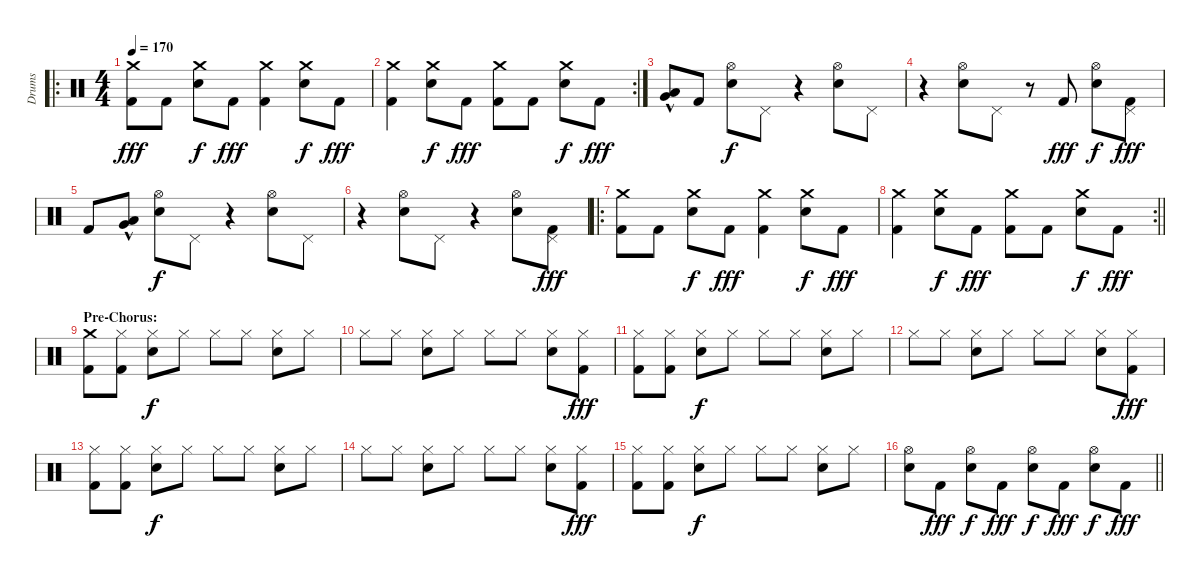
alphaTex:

\track ("Drums" "Drums") {instrument percussion}
\staff {score}
\articulation defaults
\ro
\ts (4 4)
\tempo 170
\clef neutral
\ks c
("Crash medium (hit)" "Kick (hit) 2").8{dy fff} "Kick (hit) 2".8 ("Crash medium (hit)" "Electric Snare (hit)").8{dy f} "Kick (hit) 2".8{dy fff} ("Crash medium (hit)" "Kick (hit) 2").4 ("Crash medium (hit)" "Electric Snare (hit)").8{dy f} "Kick (hit) 2".8{dy fff} |
\rc 2
("Crash medium (hit)" "Kick (hit) 2").4 ("Crash medium (hit)" "Electric Snare (hit)").8{dy f} "Kick (hit) 2".8{dy fff} ("Crash medium (hit)" "Kick (hit) 2").8 "Kick (hit) 2".8 ("Crash medium (hit)" "Electric Snare (hit)").8{dy f} "Kick (hit) 2".8{dy fff} |
("Low Tom (hit)"{hac} "Very Low Tom (hit)"{hac}).8 "Kick (hit) 2".8 ("Hi-Hat (open)" "Electric Snare (hit)").8{dy f} "Pedal Hi-Hat (hit)".8 r.4 ("Hi-Hat (open)" "Electric Snare (hit)").8 "Pedal Hi-Hat (hit)".8 |
r.4 ("Hi-Hat (open)" "Electric Snare (hit)").8 "Pedal Hi-Hat (hit)".8 r.8 "Kick (hit) 2".8{dy fff} ("Hi-Hat (open)" "Electric Snare (hit)").8{dy f} ("Pedal Hi-Hat (hit)" "Kick (hit) 2").8{dy fff} |
"Kick (hit) 2".8 ("Low Tom (hit)"{hac} "Very Low Tom (hit)"{hac}).8 ("Hi-Hat (open)" "Electric Snare (hit)").8{dy f} "Pedal Hi-Hat (hit)".8 r.4 ("Hi-Hat (open)" "Electric Snare (hit)").8 "Pedal Hi-Hat (hit)".8 |
r.4 ("Hi-Hat (open)" "Electric Snare (hit)").8 "Pedal Hi-Hat (hit)".8 r.4 ("Hi-Hat (open)" "Electric Snare (hit)").8 ("Pedal Hi-Hat (hit)" "Kick (hit) 2").8{dy fff} |
\ro
("Crash medium (hit)" "Kick (hit) 2").8 "Kick (hit) 2".8 ("Crash medium (hit)" "Electric Snare (hit)").8{dy f} "Kick (hit) 2".8{dy fff} ("Crash medium (hit)" "Kick (hit) 2").4 ("Crash medium (hit)" "Electric Snare (hit)").8{dy f} "Kick (hit) 2".8{dy fff} |
\rc 2
\barLineRight lightlight
("Crash medium (hit)" "Kick (hit) 2").4 ("Crash medium (hit)" "Electric Snare (hit)").8{dy f} "Kick (hit) 2".8{dy fff} ("Crash medium (hit)" "Kick (hit) 2").8 "Kick (hit) 2".8 ("Crash medium (hit)" "Electric Snare (hit)").8{dy f} "Kick (hit) 2".8{dy fff} |
\section ("" "Pre-Chorus:")
("Crash medium (hit)" "Kick (hit) 2").8 ("Hi-Hat (closed)" "Kick (hit) 2").8 ("Hi-Hat (closed)" "Electric Snare (hit)").8{dy f} "Hi-Hat (closed)".8 "Hi-Hat (closed)".8 "Hi-Hat (closed)".8 ("Hi-Hat (closed)" "Electric Snare (hit)").8 "Hi-Hat (closed)".8 |
"Hi-Hat (closed)".8 "Hi-Hat (closed)".8 ("Hi-Hat (closed)" "Electric Snare (hit)").8 "Hi-Hat (closed)".8 "Hi-Hat (closed)".8 "Hi-Hat (closed)".8 ("Hi-Hat (closed)" "Electric Snare (hit)").8 ("Hi-Hat (closed)" "Kick (hit) 2").8{dy fff} |
("Hi-Hat (closed)" "Kick (hit) 2").8 ("Hi-Hat (closed)" "Kick (hit) 2").8 ("Hi-Hat (closed)" "Electric Snare (hit)").8{dy f} "Hi-Hat (closed)".8 "Hi-Hat (closed)".8 "Hi-Hat (closed)".8 ("Hi-Hat (closed)" "Electric Snare (hit)").8 "Hi-Hat (closed)".8 |
"Hi-Hat (closed)".8 "Hi-Hat (closed)".8 ("Hi-Hat (closed)" "Electric Snare (hit)").8 "Hi-Hat (closed)".8 "Hi-Hat (closed)".8 "Hi-Hat (closed)".8 ("Hi-Hat (closed)" "Electric Snare (hit)").8 ("Hi-Hat (closed)" "Kick (hit) 2").8{dy fff} |
("Hi-Hat (closed)" "Kick (hit) 2").8 ("Hi-Hat (closed)" "Kick (hit) 2").8 ("Hi-Hat (closed)" "Electric Snare (hit)").8{dy f} "Hi-Hat (closed)".8 "Hi-Hat (closed)".8 "Hi-Hat (closed)".8 ("Hi-Hat (closed)" "Electric Snare (hit)").8 "Hi-Hat (closed)".8 |
"Hi-Hat (closed)".8 "Hi-Hat (closed)".8 ("Hi-Hat (closed)" "Electric Snare (hit)").8 "Hi-Hat (closed)".8 "Hi-Hat (closed)".8 "Hi-Hat (closed)".8 ("Hi-Hat (closed)" "Electric Snare (hit)").8 ("Hi-Hat (closed)" "Kick (hit) 2").8{dy fff} |
("Hi-Hat (closed)" "Kick (hit) 2").8 ("Hi-Hat (closed)" "Kick (hit) 2").8 ("Hi-Hat (closed)" "Electric Snare (hit)").8{dy f} "Hi-Hat (closed)".8 "Hi-Hat (closed)".8 "Hi-Hat (closed)".8 ("Hi-Hat (closed)" "Electric Snare (hit)").8 "Hi-Hat (closed)".8 |
\barLineRight lightlight
("Hi-Hat (open)" "Electric Snare (hit)").8 "Kick (hit) 2".8{dy fff} ("Hi-Hat (open)" "Electric Snare (hit)").8{dy f} "Kick (hit) 2".8{dy fff} ("Hi-Hat (open)" "Electric Snare (hit)").8{dy f} "Kick (hit) 2".8{dy fff} ("Hi-Hat (open)" "Electric Snare (hit)").8{dy f} "Kick (hit) 2".8{dy fff}
